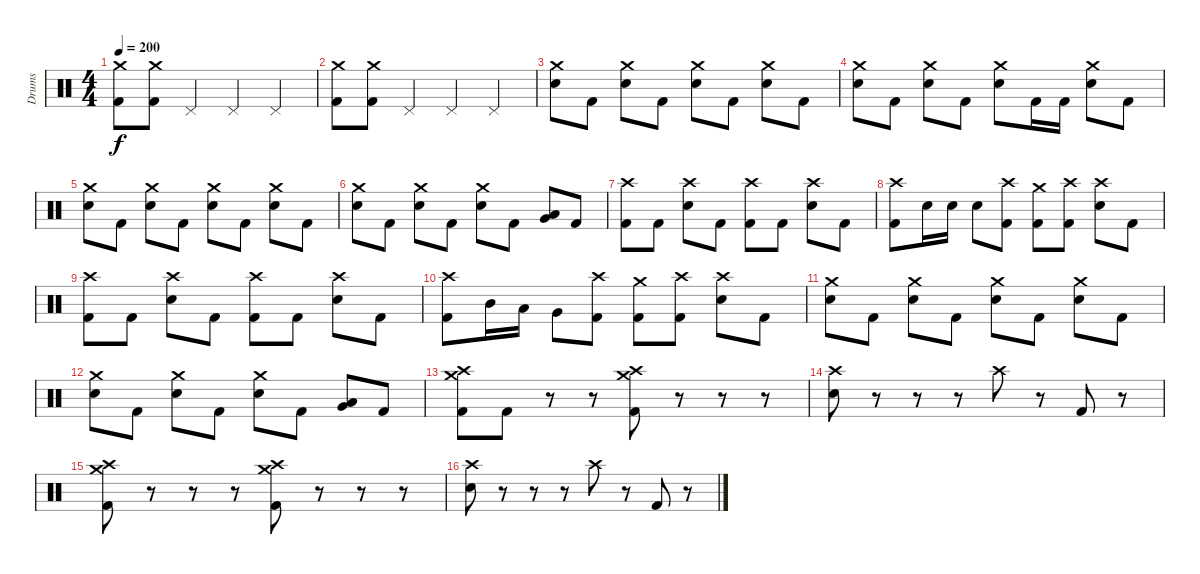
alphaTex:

\track ("Drums" "Drums") {instrument percussion}
\staff {score}
\articulation defaults
\ts (4 4)
\tempo 200
\clef neutral
\ks c
("Crash medium (hit)" "Kick (hit) 2").8{dy f} ("Crash medium (hit)" "Kick (hit) 2").8 "Pedal Hi-Hat (hit)".4 "Pedal Hi-Hat (hit)".4 "Pedal Hi-Hat (hit)".4 |
("Crash medium (hit)" "Kick (hit) 2").8 ("Crash medium (hit)" "Kick (hit) 2").8 "Pedal Hi-Hat (hit)".4 "Pedal Hi-Hat (hit)".4 "Pedal Hi-Hat (hit)".4 |
("Crash medium (hit)" "Electric Snare (hit)").8 "Kick (hit) 2".8 ("Crash medium (hit)" "Electric Snare (hit)").8 "Kick (hit) 2".8 ("Crash medium (hit)" "Electric Snare (hit)").8 "Kick (hit) 2".8 ("Crash medium (hit)" "Electric Snare (hit)").8 "Kick (hit) 2".8 |
("Crash medium (hit)" "Electric Snare (hit)").8 "Kick (hit) 2".8 ("Crash medium (hit)" "Electric Snare (hit)").8 "Kick (hit) 2".8 ("Crash medium (hit)" "Electric Snare (hit)").8 "Kick (hit) 2".16 "Kick (hit) 2".16 ("Crash medium (hit)" "Electric Snare (hit)").8 "Kick (hit) 2".8 |
("Crash medium (hit)" "Electric Snare (hit)").8 "Kick (hit) 2".8 ("Crash medium (hit)" "Electric Snare (hit)").8 "Kick (hit) 2".8 ("Crash medium (hit)" "Electric Snare (hit)").8 "Kick (hit) 2".8 ("Crash medium (hit)" "Electric Snare (hit)").8 "Kick (hit) 2".8 |
("Crash medium (hit)" "Electric Snare (hit)").8 "Kick (hit) 2".8 ("Crash medium (hit)" "Electric Snare (hit)").8 "Kick (hit) 2".8 ("Crash medium (hit)" "Electric Snare (hit)").8 "Kick (hit) 2".8 ("Low Tom (hit)" "Very Low Tom (hit)").8 "Kick (hit) 2".8 |
("Crash high (hit)" "Kick (hit) 2").8 "Kick (hit) 2".8 ("Crash high (hit)" "Electric Snare (hit)").8 "Kick (hit) 2".8 ("Crash high (hit)" "Kick (hit) 2").8 "Kick (hit) 2".8 ("Crash high (hit)" "Electric Snare (hit)").8 "Kick (hit) 2".8 |
("Crash high (hit)" "Kick (hit) 2").8 "Electric Snare (hit)".16 "Electric Snare (hit)".16 "Electric Snare (hit)".8 ("Crash high (hit)" "Kick (hit) 2").8 ("Crash medium (hit)" "Kick (hit) 2").8 ("Crash high (hit)" "Kick (hit) 2").8 ("Crash high (hit)" "Electric Snare (hit)").8 "Kick (hit) 2".8 |
("Crash high (hit)" "Kick (hit) 2").8 "Kick (hit) 2".8 ("Crash high (hit)" "Electric Snare (hit)").8 "Kick (hit) 2".8 ("Crash high (hit)" "Kick (hit) 2").8 "Kick (hit) 2".8 ("Crash high (hit)" "Electric Snare (hit)").8 "Kick (hit) 2".8 |
("Crash high (hit)" "Kick (hit) 2").8 "Mid Tom (hit)".16 "Low Tom (hit)".16 "Very Low Tom (hit)".8 ("Crash high (hit)" "Kick (hit) 2").8 ("Crash medium (hit)" "Kick (hit) 2").8 ("Crash high (hit)" "Kick (hit) 2").8 ("Crash high (hit)" "Electric Snare (hit)").8 "Kick (hit) 2".8 |
("Crash medium (hit)" "Electric Snare (hit)").8 "Kick (hit) 2".8 ("Crash medium (hit)" "Electric Snare (hit)").8 "Kick (hit) 2".8 ("Crash medium (hit)" "Electric Snare (hit)").8 "Kick (hit) 2".8 ("Crash medium (hit)" "Electric Snare (hit)").8 "Kick (hit) 2".8 |
("Crash medium (hit)" "Electric Snare (hit)").8 "Kick (hit) 2".8 ("Crash medium (hit)" "Electric Snare (hit)").8 "Kick (hit) 2".8 ("Crash medium (hit)" "Electric Snare (hit)").8 "Kick (hit) 2".8 ("Low Tom (hit)" "Very Low Tom (hit)").8 "Kick (hit) 2".8 |
("Crash medium (hit)" "Crash high (hit)" "Kick (hit) 2").8 "Kick (hit) 2".8 r.8 r.8 ("Crash medium (hit)" "Crash high (hit)" "Kick (hit) 2").8 r.8 r.8 r.8 |
("Crash high (hit)" "Electric Snare (hit)").8 r.8 r.8 r.8 "Crash high (hit)".8 r.8 "Kick (hit) 2".8 r.8 |
("Crash medium (hit)" "Crash high (hit)" "Kick (hit) 2").8 r.8 r.8 r.8 ("Crash medium (hit)" "Crash high (hit)" "Kick (hit) 2").8 r.8 r.8 r.8 |
("Crash high (hit)" "Electric Snare (hit)").8 r.8 r.8 r.8 "Crash high (hit)".8 r.8 "Kick (hit) 2".8 r.8
